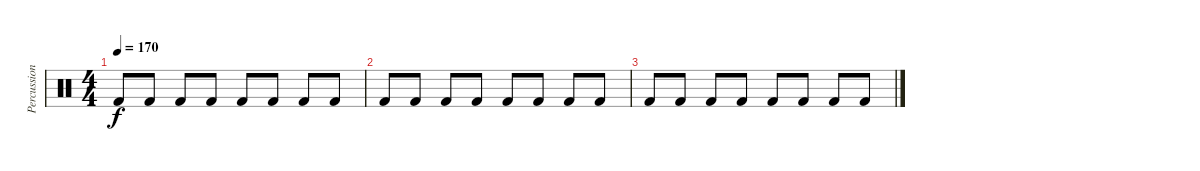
\track ("Percussion" "Percussion") {solo instrument percussion}
\staff {score}
\articulation defaults
\ts (4 4)
\tempo 170
\clef neutral
\ks c "Kick (hit) 2".8{dy f} "Kick (hit) 2".8 "Kick (hit) 2".8 "Kick (hit) 2".8 "Kick (hit) 2".8 "Kick (hit) 2".8 "Kick (hit) 2".8 "Kick (hit) 2".8
|
"Kick (hit) 2".8 "Kick (hit) 2".8 "Kick (hit) 2".8 "Kick (hit) 2".8 "Kick (hit) 2".8 "Kick (hit) 2".8 "Kick (hit) 2".8 "Kick (hit) 2".8 |
"Kick (hit) 2".8 "Kick (hit) 2".8 "Kick (hit) 2".8 "Kick (hit) 2".8 "Kick (hit) 2".8 "Kick (hit) 2".8 "Kick (hit) 2".8 "Kick (hit) 2".8
